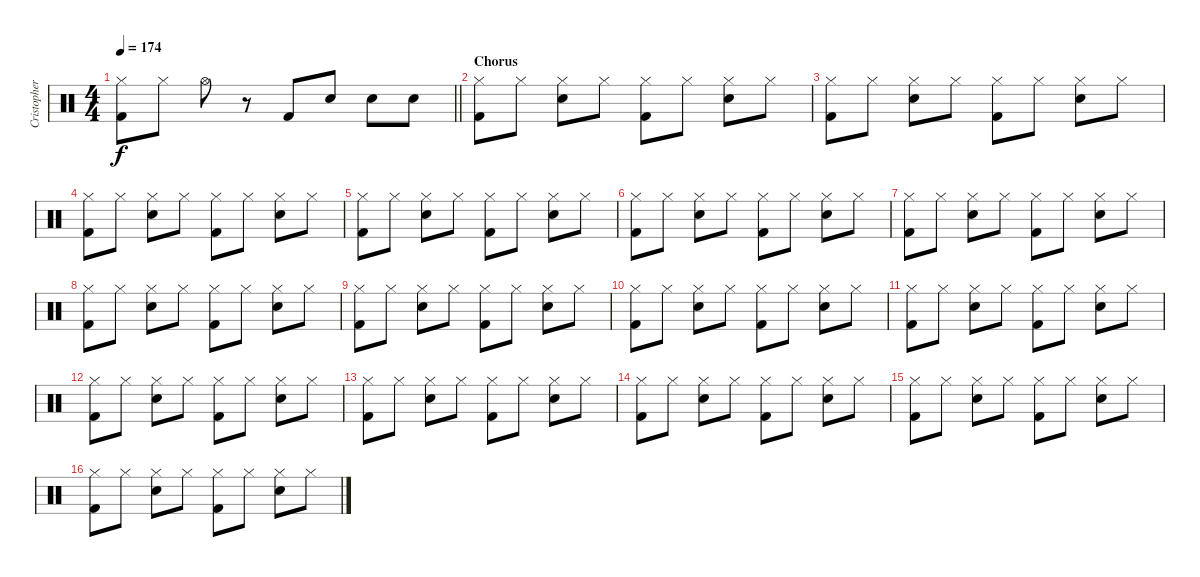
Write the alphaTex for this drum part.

\track ("Cristopher S. (Drums)" "Cristopher") {instrument percussion}
\staff {score}
\articulation defaults
\ts (4 4)
\tempo 174
\clef neutral
\barLineRight lightlight
\ks c
("Hi-Hat (closed)" "Kick (hit) 2").8{dy f} "Hi-Hat (closed)".8 "Hi-Hat (open)".8 r.8 "Kick (hit) 2".8 "Electric Snare (hit)".8 "Electric Snare (hit)".8 "Electric Snare (hit)".8 |
\section ("" "Chorus")
("Kick (hit) 2" "Hi-Hat (closed)").8 "Hi-Hat (closed)".8 ("Electric Snare (hit)" "Hi-Hat (closed)").8 "Hi-Hat (closed)".8 ("Kick (hit) 2" "Hi-Hat (closed)").8 "Hi-Hat (closed)".8 ("Electric Snare (hit)" "Hi-Hat (closed)").8 "Hi-Hat (closed)".8 |
("Kick (hit) 2" "Hi-Hat (closed)").8 "Hi-Hat (closed)".8 ("Electric Snare (hit)" "Hi-Hat (closed)").8 "Hi-Hat (closed)".8 ("Kick (hit) 2" "Hi-Hat (closed)").8 "Hi-Hat (closed)".8 ("Electric Snare (hit)" "Hi-Hat (closed)").8 "Hi-Hat (closed)".8 |
("Kick (hit) 2" "Hi-Hat (closed)").8 "Hi-Hat (closed)".8 ("Electric Snare (hit)" "Hi-Hat (closed)").8 "Hi-Hat (closed)".8 ("Kick (hit) 2" "Hi-Hat (closed)").8 "Hi-Hat (closed)".8 ("Electric Snare (hit)" "Hi-Hat (closed)").8 "Hi-Hat (closed)".8 |
("Kick (hit) 2" "Hi-Hat (closed)").8 "Hi-Hat (closed)".8 ("Electric Snare (hit)" "Hi-Hat (closed)").8 "Hi-Hat (closed)".8 ("Kick (hit) 2" "Hi-Hat (closed)").8 "Hi-Hat (closed)".8 ("Electric Snare (hit)" "Hi-Hat (closed)").8 "Hi-Hat (closed)".8 |
("Kick (hit) 2" "Hi-Hat (closed)").8 "Hi-Hat (closed)".8 ("Electric Snare (hit)" "Hi-Hat (closed)").8 "Hi-Hat (closed)".8 ("Kick (hit) 2" "Hi-Hat (closed)").8 "Hi-Hat (closed)".8 ("Electric Snare (hit)" "Hi-Hat (closed)").8 "Hi-Hat (closed)".8 |
("Kick (hit) 2" "Hi-Hat (closed)").8 "Hi-Hat (closed)".8 ("Electric Snare (hit)" "Hi-Hat (closed)").8 "Hi-Hat (closed)".8 ("Kick (hit) 2" "Hi-Hat (closed)").8 "Hi-Hat (closed)".8 ("Electric Snare (hit)" "Hi-Hat (closed)").8 "Hi-Hat (closed)".8 |
("Kick (hit) 2" "Hi-Hat (closed)").8 "Hi-Hat (closed)".8 ("Electric Snare (hit)" "Hi-Hat (closed)").8 "Hi-Hat (closed)".8 ("Kick (hit) 2" "Hi-Hat (closed)").8 "Hi-Hat (closed)".8 ("Electric Snare (hit)" "Hi-Hat (closed)").8 "Hi-Hat (closed)".8 |
("Kick (hit) 2" "Hi-Hat (closed)").8 "Hi-Hat (closed)".8 ("Electric Snare (hit)" "Hi-Hat (closed)").8 "Hi-Hat (closed)".8 ("Kick (hit) 2" "Hi-Hat (closed)").8 "Hi-Hat (closed)".8 ("Electric Snare (hit)" "Hi-Hat (closed)").8 "Hi-Hat (closed)".8 |
("Kick (hit) 2" "Hi-Hat (closed)").8 "Hi-Hat (closed)".8 ("Electric Snare (hit)" "Hi-Hat (closed)").8 "Hi-Hat (closed)".8 ("Kick (hit) 2" "Hi-Hat (closed)").8 "Hi-Hat (closed)".8 ("Electric Snare (hit)" "Hi-Hat (closed)").8 "Hi-Hat (closed)".8 |
("Kick (hit) 2" "Hi-Hat (closed)").8 "Hi-Hat (closed)".8 ("Electric Snare (hit)" "Hi-Hat (closed)").8 "Hi-Hat (closed)".8 ("Kick (hit) 2" "Hi-Hat (closed)").8 "Hi-Hat (closed)".8 ("Electric Snare (hit)" "Hi-Hat (closed)").8 "Hi-Hat (closed)".8 |
("Kick (hit) 2" "Hi-Hat (closed)").8 "Hi-Hat (closed)".8 ("Electric Snare (hit)" "Hi-Hat (closed)").8 "Hi-Hat (closed)".8 ("Kick (hit) 2" "Hi-Hat (closed)").8 "Hi-Hat (closed)".8 ("Electric Snare (hit)" "Hi-Hat (closed)").8 "Hi-Hat (closed)".8 |
("Kick (hit) 2" "Hi-Hat (closed)").8 "Hi-Hat (closed)".8 ("Electric Snare (hit)" "Hi-Hat (closed)").8 "Hi-Hat (closed)".8 ("Kick (hit) 2" "Hi-Hat (closed)").8 "Hi-Hat (closed)".8 ("Electric Snare (hit)" "Hi-Hat (closed)").8 "Hi-Hat (closed)".8 |
("Kick (hit) 2" "Hi-Hat (closed)").8 "Hi-Hat (closed)".8 ("Electric Snare (hit)" "Hi-Hat (closed)").8 "Hi-Hat (closed)".8 ("Kick (hit) 2" "Hi-Hat (closed)").8 "Hi-Hat (closed)".8 ("Electric Snare (hit)" "Hi-Hat (closed)").8 "Hi-Hat (closed)".8 |
("Kick (hit) 2" "Hi-Hat (closed)").8 "Hi-Hat (closed)".8 ("Electric Snare (hit)" "Hi-Hat (closed)").8 "Hi-Hat (closed)".8 ("Kick (hit) 2" "Hi-Hat (closed)").8 "Hi-Hat (closed)".8 ("Electric Snare (hit)" "Hi-Hat (closed)").8 "Hi-Hat (closed)".8 |
("Kick (hit) 2" "Hi-Hat (closed)").8 "Hi-Hat (closed)".8 ("Electric Snare (hit)" "Hi-Hat (closed)").8 "Hi-Hat (closed)".8 ("Kick (hit) 2" "Hi-Hat (closed)").8 "Hi-Hat (closed)".8 ("Electric Snare (hit)" "Hi-Hat (closed)").8 "Hi-Hat (closed)".8
